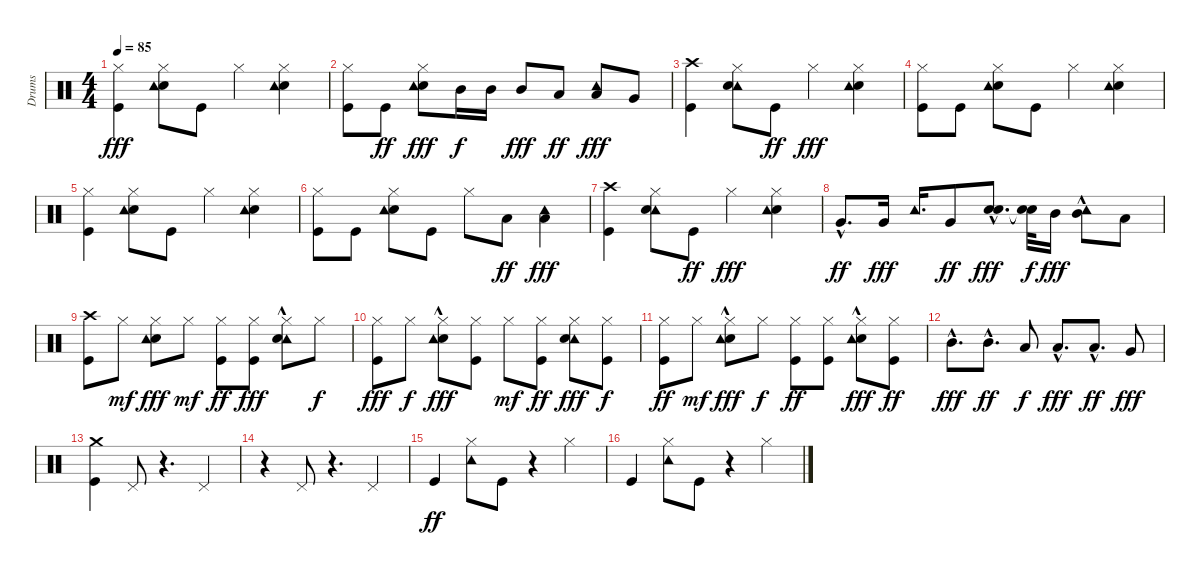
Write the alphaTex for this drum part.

\track ("Drums" "Drums") {instrument percussion}
\staff {score}
\articulation defaults
\ts (4 4)
\tempo 85
\clef neutral
\ks c
("Kick (hit)" "Hi-Hat (closed)").4{dy fff} ("Hi-Hat (closed)" "Snare (hit) 2" "Tambourine (hit)").8 "Kick (hit)".8 "Hi-Hat (closed)".4 ("Snare (hit) 2" "Hi-Hat (closed)" "Tambourine (hit)").4 |
("Hi-Hat (closed)" "Kick (hit)").8 "Kick (hit)".8{dy ff} ("Snare (hit) 2" "Hi-Hat (closed)" "Tambourine (hit)").8{dy fff} "Mid Tom (hit)".16{dy f} "Mid Tom (hit)".16 "Mid Tom (hit)".8{dy fff} "Low Tom (hit)".8{dy ff} ("Low Tom (hit)" "Tambourine (hit)").8{dy fff} "Very Low Tom (hit)".8 |
("Kick (hit)" "Crash high (hit)").4 ("Tambourine (hit)" "Snare (hit) 2" "Hi-Hat (closed)").8 "Kick (hit)".8{dy ff} "Hi-Hat (closed)".4{dy fff} ("Hi-Hat (closed)" "Snare (hit) 2" "Tambourine (hit)").4 |
("Hi-Hat (closed)" "Kick (hit)").8 "Kick (hit)".8 ("Hi-Hat (closed)" "Snare (hit) 2" "Tambourine (hit)").8 "Kick (hit)".8 "Hi-Hat (closed)".4 ("Snare (hit) 2" "Hi-Hat (closed)" "Tambourine (hit)").4 |
("Kick (hit)" "Hi-Hat (closed)").4 ("Hi-Hat (closed)" "Snare (hit) 2" "Tambourine (hit)").8 "Kick (hit)".8 "Hi-Hat (closed)".4 ("Snare (hit) 2" "Hi-Hat (closed)" "Tambourine (hit)").4 |
("Hi-Hat (closed)" "Kick (hit)").8 "Kick (hit)".8 ("Hi-Hat (closed)" "Snare (hit) 2" "Tambourine (hit)").8 "Kick (hit)".8 "Hi-Hat (closed)".8 "Low Tom (hit)".8{dy ff} ("Low Tom (hit)" "Tambourine (hit)").4{dy fff} |
("Kick (hit)" "Crash high (hit)").4 ("Tambourine (hit)" "Snare (hit) 2" "Hi-Hat (closed)").8 "Kick (hit)".8{dy ff} "Hi-Hat (closed)".4{dy fff} ("Hi-Hat (closed)" "Snare (hit) 2" "Tambourine (hit)").4 |
"Very Low Tom (hit)"{hac}.8{d dy ff} "Very Low Tom (hit)".16{dy fff} "Tambourine (hit)".16{d} "Very Low Tom (hit)".8{dy ff} ("Snare (hit) 2"{hac} "Snare (hit) 2"{hac}).8{d dy fff} ("Snare (hit)"{t} "Snare (hit)"{t}).32{dy f} "Mid Tom (hit)".16{dy fff} ("Mid Tom (hit)" "Tambourine (hit)"{hac}).8 "Low Tom (hit)".8 |
("Crash high (hit)" "Kick (hit)").8 "Hi-Hat (closed)".8{dy mf} ("Snare (hit) 2" "Hi-Hat (closed)" "Tambourine (hit)").8{dy fff} "Hi-Hat (closed)".8{dy mf} ("Hi-Hat (closed)" "Kick (hit)").8{dy ff} ("Kick (hit)" "Hi-Hat (closed)").8{dy fff} ("Hi-Hat (closed)" "Tambourine (hit)"{hac} "Snare (hit) 2").8 "Hi-Hat (closed)".8{dy f} |
("Hi-Hat (closed)" "Kick (hit)").8{dy fff} "Hi-Hat (closed)".8{dy f} ("Hi-Hat (closed)" "Snare (hit) 2" "Tambourine (hit)"{hac}).8{dy fff} ("Kick (hit)" "Hi-Hat (closed)").8 "Hi-Hat (closed)".8{dy mf} ("Hi-Hat (closed)" "Kick (hit)").8{dy ff} ("Tambourine (hit)" "Hi-Hat (closed)" "Snare (hit) 2").8{dy fff} ("Hi-Hat (closed)" "Kick (hit)").8{dy f} |
("Hi-Hat (closed)" "Kick (hit)").8{dy ff} "Hi-Hat (closed)".8{dy mf} ("Snare (hit) 2" "Hi-Hat (closed)" "Tambourine (hit)"{hac}).8{dy fff} "Hi-Hat (closed)".8{dy f} ("Hi-Hat (closed)" "Kick (hit)").8{dy ff} ("Hi-Hat (closed)" "Kick (hit)").8 ("Hi-Hat (closed)" "Snare (hit) 2" "Tambourine (hit)"{hac}).8{dy fff} ("Hi-Hat (closed)" "Kick (hit)").8{dy ff} |
"Mid Tom (hit)"{hac}.8{d dy fff} "Mid Tom (hit)"{hac}.8{d dy ff} "Low Tom (hit)".8{dy f} "Low Tom (hit)"{hac}.8{d dy fff} "Low Tom (hit)"{hac}.8{d dy ff} "Very Low Tom (hit)".8{dy fff} |
("Kick (hit)" "Crash medium (hit)").4 "Pedal Hi-Hat (hit)".8 r.4{d} "Pedal Hi-Hat (hit)".4 |
r.4 "Pedal Hi-Hat (hit)".8 r.4{d} "Pedal Hi-Hat (hit)".4 |
"Kick (hit)".4{dy ff} ("Hi-Hat (closed)" "Tambourine (hit)").8 "Kick (hit)".8 r.4 "Hi-Hat (closed)".4 |
"Kick (hit)".4 ("Tambourine (hit)" "Hi-Hat (closed)").8 "Kick (hit)".8 r.4 "Hi-Hat (closed)".4
